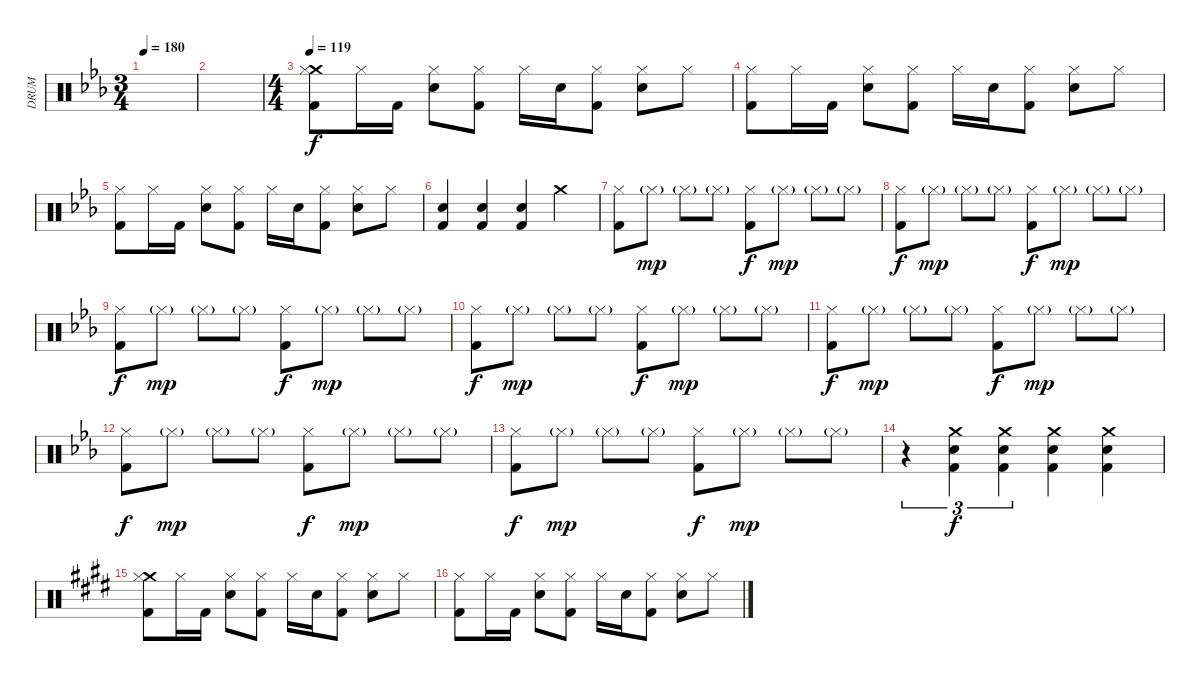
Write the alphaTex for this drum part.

\track ("DRUM" "DRUM") {instrument percussion}
\staff {score}
\articulation defaults
\ts (3 4)
\tempo 180
\clef neutral
\ks eb
|
|
\ts (4 4)
\tempo 119
("Crash medium (hit)" "Hi-Hat (closed)" "Kick (hit) 2").8 "Hi-Hat (closed)".16 "Kick (hit) 2".16 ("Hi-Hat (closed)" "Snare (hit) 2").8 ("Hi-Hat (closed)" "Kick (hit) 2").8 "Hi-Hat (closed)".16 "Snare (hit) 2".16 ("Hi-Hat (closed)" "Kick (hit) 2").8 ("Hi-Hat (closed)" "Snare (hit) 2").8 "Hi-Hat (closed)".8 |
("Hi-Hat (closed)" "Kick (hit) 2").8 "Hi-Hat (closed)".16 "Kick (hit) 2".16 ("Hi-Hat (closed)" "Snare (hit) 2").8 ("Hi-Hat (closed)" "Kick (hit) 2").8 "Hi-Hat (closed)".16 "Snare (hit) 2".16 ("Hi-Hat (closed)" "Kick (hit) 2").8 ("Hi-Hat (closed)" "Snare (hit) 2").8 "Hi-Hat (closed)".8 |
("Hi-Hat (closed)" "Kick (hit) 2").8 "Hi-Hat (closed)".16 "Kick (hit) 2".16 ("Hi-Hat (closed)" "Snare (hit) 2").8 ("Hi-Hat (closed)" "Kick (hit) 2").8 "Hi-Hat (closed)".16 "Snare (hit) 2".16 ("Hi-Hat (closed)" "Kick (hit) 2").8 ("Hi-Hat (closed)" "Snare (hit) 2").8 "Hi-Hat (closed)".8 |
("Snare (hit) 2" "Kick (hit) 2").4 ("Snare (hit) 2" "Kick (hit) 2").4 ("Snare (hit) 2" "Kick (hit) 2").4 "Crash medium (hit)".4 |
("Hi-Hat (closed)" "Kick (hit) 2").8 "Hi-Hat (closed)"{g}.8{dy mp} "Hi-Hat (closed)"{g}.8 "Hi-Hat (closed)"{g}.8 ("Hi-Hat (closed)" "Kick (hit) 2").8{dy f} "Hi-Hat (closed)"{g}.8{dy mp} "Hi-Hat (closed)"{g}.8 "Hi-Hat (closed)"{g}.8 |
("Hi-Hat (closed)" "Kick (hit) 2").8{dy f} "Hi-Hat (closed)"{g}.8{dy mp} "Hi-Hat (closed)"{g}.8 "Hi-Hat (closed)"{g}.8 ("Hi-Hat (closed)" "Kick (hit) 2").8{dy f} "Hi-Hat (closed)"{g}.8{dy mp} "Hi-Hat (closed)"{g}.8 "Hi-Hat (closed)"{g}.8 |
("Hi-Hat (closed)" "Kick (hit) 2").8{dy f} "Hi-Hat (closed)"{g}.8{dy mp} "Hi-Hat (closed)"{g}.8 "Hi-Hat (closed)"{g}.8 ("Hi-Hat (closed)" "Kick (hit) 2").8{dy f} "Hi-Hat (closed)"{g}.8{dy mp} "Hi-Hat (closed)"{g}.8 "Hi-Hat (closed)"{g}.8 |
("Hi-Hat (closed)" "Kick (hit) 2").8{dy f} "Hi-Hat (closed)"{g}.8{dy mp} "Hi-Hat (closed)"{g}.8 "Hi-Hat (closed)"{g}.8 ("Hi-Hat (closed)" "Kick (hit) 2").8{dy f} "Hi-Hat (closed)"{g}.8{dy mp} "Hi-Hat (closed)"{g}.8 "Hi-Hat (closed)"{g}.8 |
("Hi-Hat (closed)" "Kick (hit) 2").8{dy f} "Hi-Hat (closed)"{g}.8{dy mp} "Hi-Hat (closed)"{g}.8 "Hi-Hat (closed)"{g}.8 ("Hi-Hat (closed)" "Kick (hit) 2").8{dy f} "Hi-Hat (closed)"{g}.8{dy mp} "Hi-Hat (closed)"{g}.8 "Hi-Hat (closed)"{g}.8 |
("Hi-Hat (closed)" "Kick (hit) 2").8{dy f} "Hi-Hat (closed)"{g}.8{dy mp} "Hi-Hat (closed)"{g}.8 "Hi-Hat (closed)"{g}.8 ("Hi-Hat (closed)" "Kick (hit) 2").8{dy f} "Hi-Hat (closed)"{g}.8{dy mp} "Hi-Hat (closed)"{g}.8 "Hi-Hat (closed)"{g}.8 |
("Hi-Hat (closed)" "Kick (hit) 2").8{dy f} "Hi-Hat (closed)"{g}.8{dy mp} "Hi-Hat (closed)"{g}.8 "Hi-Hat (closed)"{g}.8 ("Hi-Hat (closed)" "Kick (hit) 2").8{dy f} "Hi-Hat (closed)"{g}.8{dy mp} "Hi-Hat (closed)"{g}.8 "Hi-Hat (closed)"{g}.8 |
r.4{tu (3 2)} ("Crash medium (hit)" "Snare (hit) 2" "Kick (hit) 2").4{tu (3 2) dy f} ("Crash medium (hit)" "Snare (hit) 2" "Kick (hit) 2").4{tu (3 2)} ("Crash medium (hit)" "Snare (hit) 2" "Kick (hit) 2").4 ("Crash medium (hit)" "Snare (hit) 2" "Kick (hit) 2").4 |
\ks e
("Crash medium (hit)" "Hi-Hat (closed)" "Kick (hit) 2").8 "Hi-Hat (closed)".16 "Kick (hit) 2".16 ("Hi-Hat (closed)" "Snare (hit) 2").8 ("Hi-Hat (closed)" "Kick (hit) 2").8 "Hi-Hat (closed)".16 "Snare (hit) 2".16 ("Hi-Hat (closed)" "Kick (hit) 2").8 ("Hi-Hat (closed)" "Snare (hit) 2").8 "Hi-Hat (closed)".8 |
("Hi-Hat (closed)" "Kick (hit) 2").8 "Hi-Hat (closed)".16 "Kick (hit) 2".16 ("Hi-Hat (closed)" "Snare (hit) 2").8 ("Hi-Hat (closed)" "Kick (hit) 2").8 "Hi-Hat (closed)".16 "Snare (hit) 2".16 ("Hi-Hat (closed)" "Kick (hit) 2").8 ("Hi-Hat (closed)" "Snare (hit) 2").8 "Hi-Hat (closed)".8
